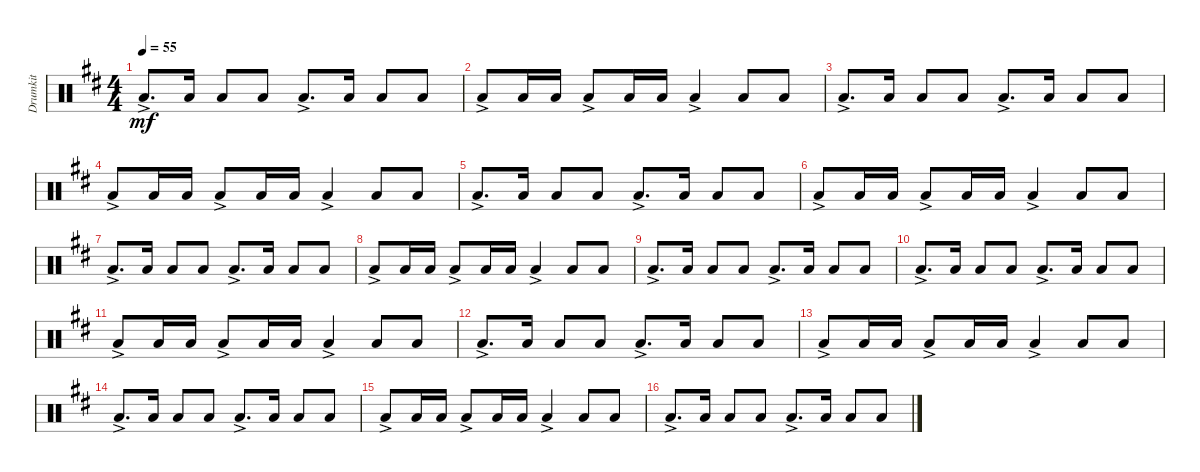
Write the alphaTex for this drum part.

\track ("Drumkit" "Drumkit") {instrument percussion}
\staff {score}
\articulation defaults
\ts (4 4)
\tempo 55
\clef neutral
\ks d "Low Floor Tom (hit)"{ac}.8{d dy mf} "Low Tom (hit)".16 "Low Tom (hit)".8 "Low Tom (hit)".8 "Low Floor Tom (hit)"{ac}.8{d} "Low Tom (hit)".16 "Low Tom (hit)".8 "Low Tom (hit)".8
|
"Low Floor Tom (hit)"{ac}.8 "Low Tom (hit)".16 "Low Tom (hit)".16 "Low Floor Tom (hit)"{ac}.8 "Low Tom (hit)".16 "Low Tom (hit)".16 "Low Floor Tom (hit)"{ac}.4 "Low Tom (hit)".8 "Low Tom (hit)".8 |
"Low Floor Tom (hit)"{ac}.8{d} "Low Tom (hit)".16 "Low Tom (hit)".8 "Low Tom (hit)".8 "Low Floor Tom (hit)"{ac}.8{d} "Low Tom (hit)".16 "Low Tom (hit)".8 "Low Tom (hit)".8 |
"Low Floor Tom (hit)"{ac}.8 "Low Tom (hit)".16 "Low Tom (hit)".16 "Low Floor Tom (hit)"{ac}.8 "Low Tom (hit)".16 "Low Tom (hit)".16 "Low Floor Tom (hit)"{ac}.4 "Low Tom (hit)".8 "Low Tom (hit)".8 |
"Low Floor Tom (hit)"{ac}.8{d} "Low Tom (hit)".16 "Low Tom (hit)".8 "Low Tom (hit)".8 "Low Floor Tom (hit)"{ac}.8{d} "Low Tom (hit)".16 "Low Tom (hit)".8 "Low Tom (hit)".8 |
"Low Floor Tom (hit)"{ac}.8 "Low Tom (hit)".16 "Low Tom (hit)".16 "Low Floor Tom (hit)"{ac}.8 "Low Tom (hit)".16 "Low Tom (hit)".16 "Low Floor Tom (hit)"{ac}.4 "Low Tom (hit)".8 "Low Tom (hit)".8 |
"Low Floor Tom (hit)"{ac}.8{d} "Low Tom (hit)".16 "Low Tom (hit)".8 "Low Tom (hit)".8 "Low Floor Tom (hit)"{ac}.8{d} "Low Tom (hit)".16 "Low Tom (hit)".8 "Low Tom (hit)".8 |
"Low Floor Tom (hit)"{ac}.8 "Low Tom (hit)".16 "Low Tom (hit)".16 "Low Floor Tom (hit)"{ac}.8 "Low Tom (hit)".16 "Low Tom (hit)".16 "Low Floor Tom (hit)"{ac}.4 "Low Tom (hit)".8 "Low Tom (hit)".8 |
"Low Floor Tom (hit)"{ac}.8{d} "Low Tom (hit)".16 "Low Tom (hit)".8 "Low Tom (hit)".8 "Low Floor Tom (hit)"{ac}.8{d} "Low Tom (hit)".16 "Low Tom (hit)".8 "Low Tom (hit)".8 |
"Low Floor Tom (hit)"{ac}.8{d} "Low Tom (hit)".16 "Low Tom (hit)".8 "Low Tom (hit)".8 "Low Floor Tom (hit)"{ac}.8{d} "Low Tom (hit)".16 "Low Tom (hit)".8 "Low Tom (hit)".8 |
"Low Floor Tom (hit)"{ac}.8 "Low Tom (hit)".16 "Low Tom (hit)".16 "Low Floor Tom (hit)"{ac}.8 "Low Tom (hit)".16 "Low Tom (hit)".16 "Low Floor Tom (hit)"{ac}.4 "Low Tom (hit)".8 "Low Tom (hit)".8 |
"Low Floor Tom (hit)"{ac}.8{d} "Low Tom (hit)".16 "Low Tom (hit)".8 "Low Tom (hit)".8 "Low Floor Tom (hit)"{ac}.8{d} "Low Tom (hit)".16 "Low Tom (hit)".8 "Low Tom (hit)".8 |
"Low Floor Tom (hit)"{ac}.8 "Low Tom (hit)".16 "Low Tom (hit)".16 "Low Floor Tom (hit)"{ac}.8 "Low Tom (hit)".16 "Low Tom (hit)".16 "Low Floor Tom (hit)"{ac}.4 "Low Tom (hit)".8 "Low Tom (hit)".8 |
"Low Floor Tom (hit)"{ac}.8{d} "Low Tom (hit)".16 "Low Tom (hit)".8 "Low Tom (hit)".8 "Low Floor Tom (hit)"{ac}.8{d} "Low Tom (hit)".16 "Low Tom (hit)".8 "Low Tom (hit)".8 |
"Low Floor Tom (hit)"{ac}.8 "Low Tom (hit)".16 "Low Tom (hit)".16 "Low Floor Tom (hit)"{ac}.8 "Low Tom (hit)".16 "Low Tom (hit)".16 "Low Floor Tom (hit)"{ac}.4 "Low Tom (hit)".8 "Low Tom (hit)".8 |
"Low Floor Tom (hit)"{ac}.8{d} "Low Tom (hit)".16 "Low Tom (hit)".8 "Low Tom (hit)".8 "Low Floor Tom (hit)"{ac}.8{d} "Low Tom (hit)".16 "Low Tom (hit)".8 "Low Tom (hit)".8
